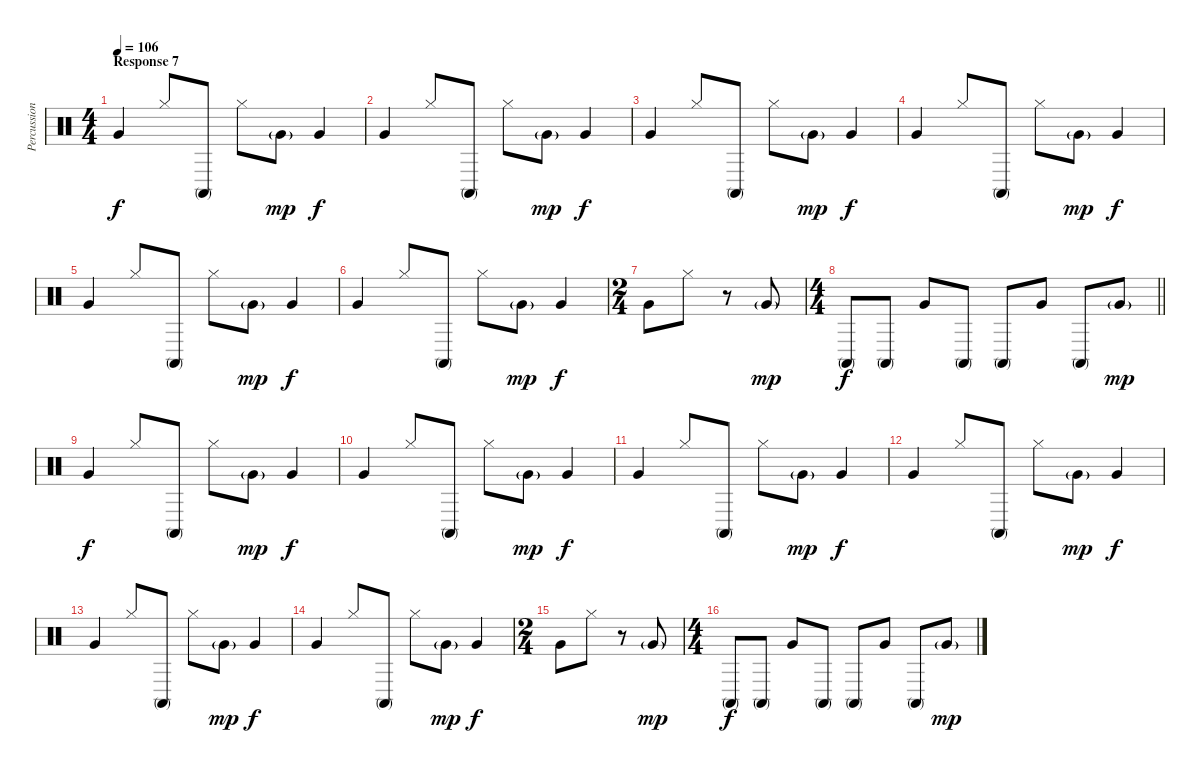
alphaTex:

\track ("Percussion" "Percussion") {instrument percussion}
\staff {score}
\articulation defaults
\ts (4 4)
\section ("" "Response 7")
\tempo 106
\clef neutral
\ks c "Very Low Tom (hit)".4{dy f} "Hi-Hat (closed)".8 "Conga high (mute)".8 "Hi-Hat (closed)".8 "Very Low Tom (hit)"{g}.8{dy mp} "Very Low Tom (hit)".4{dy f}
|
"Very Low Tom (hit)".4 "Hi-Hat (closed)".8 "Conga high (mute)".8 "Hi-Hat (closed)".8 "Very Low Tom (hit)"{g}.8{dy mp} "Very Low Tom (hit)".4{dy f} |
"Very Low Tom (hit)".4 "Hi-Hat (closed)".8 "Conga high (mute)".8 "Hi-Hat (closed)".8 "Very Low Tom (hit)"{g}.8{dy mp} "Very Low Tom (hit)".4{dy f} |
"Very Low Tom (hit)".4 "Hi-Hat (closed)".8 "Conga high (mute)".8 "Hi-Hat (closed)".8 "Very Low Tom (hit)"{g}.8{dy mp} "Very Low Tom (hit)".4{dy f} |
"Very Low Tom (hit)".4 "Hi-Hat (closed)".8 "Conga high (mute)".8 "Hi-Hat (closed)".8 "Very Low Tom (hit)"{g}.8{dy mp} "Very Low Tom (hit)".4{dy f} |
"Very Low Tom (hit)".4 "Hi-Hat (closed)".8 "Conga high (mute)".8 "Hi-Hat (closed)".8 "Very Low Tom (hit)"{g}.8{dy mp} "Very Low Tom (hit)".4{dy f} |
\ts (2 4)
"Very Low Tom (hit)".8 "Hi-Hat (closed)".8 r.8 "Very Low Tom (hit)"{g}.8{dy mp} |
\ts (4 4)
\barLineRight lightlight "Conga high (mute)".8{dy f} "Conga high (mute)".8 "Very Low Tom (hit)".8 "Conga high (mute)".8 "Conga high (mute)".8 "Very Low Tom (hit)".8 "Conga high (mute)".8 "Very Low Tom (hit)"{g}.8{dy mp}
|
"Very Low Tom (hit)".4{dy f} "Hi-Hat (closed)".8 "Conga high (mute)".8 "Hi-Hat (closed)".8 "Very Low Tom (hit)"{g}.8{dy mp} "Very Low Tom (hit)".4{dy f} |
"Very Low Tom (hit)".4 "Hi-Hat (closed)".8 "Conga high (mute)".8 "Hi-Hat (closed)".8 "Very Low Tom (hit)"{g}.8{dy mp} "Very Low Tom (hit)".4{dy f} |
"Very Low Tom (hit)".4 "Hi-Hat (closed)".8 "Conga high (mute)".8 "Hi-Hat (closed)".8 "Very Low Tom (hit)"{g}.8{dy mp} "Very Low Tom (hit)".4{dy f} |
"Very Low Tom (hit)".4 "Hi-Hat (closed)".8 "Conga high (mute)".8 "Hi-Hat (closed)".8 "Very Low Tom (hit)"{g}.8{dy mp} "Very Low Tom (hit)".4{dy f} |
"Very Low Tom (hit)".4 "Hi-Hat (closed)".8 "Conga high (mute)".8 "Hi-Hat (closed)".8 "Very Low Tom (hit)"{g}.8{dy mp} "Very Low Tom (hit)".4{dy f} |
"Very Low Tom (hit)".4 "Hi-Hat (closed)".8 "Conga high (mute)".8 "Hi-Hat (closed)".8 "Very Low Tom (hit)"{g}.8{dy mp} "Very Low Tom (hit)".4{dy f} |
\ts (2 4)
"Very Low Tom (hit)".8 "Hi-Hat (closed)".8 r.8 "Very Low Tom (hit)"{g}.8{dy mp} |
\ts (4 4)
"Conga high (mute)".8{dy f} "Conga high (mute)".8 "Very Low Tom (hit)".8 "Conga high (mute)".8 "Conga high (mute)".8 "Very Low Tom (hit)".8 "Conga high (mute)".8 "Very Low Tom (hit)"{g}.8{dy mp}
